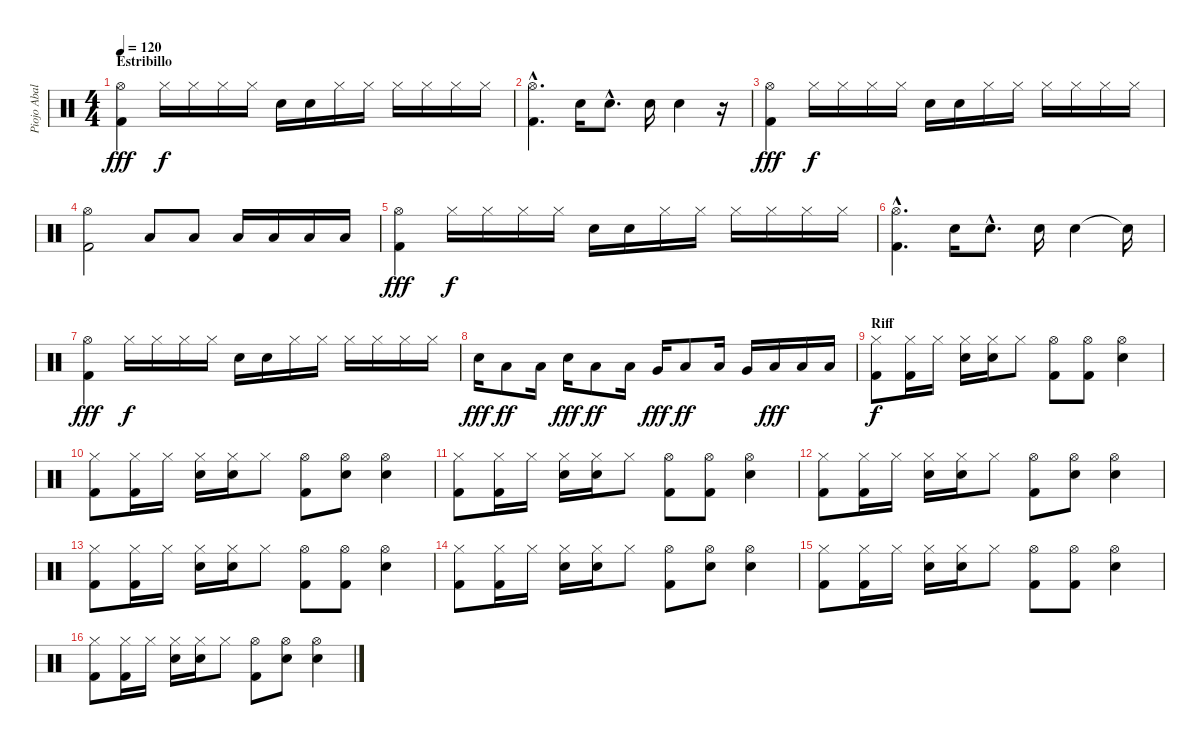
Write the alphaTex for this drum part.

\track ("Piojo Abalos" "Piojo Abal") {instrument percussion}
\staff {score}
\articulation defaults
\ts (4 4)
\section ("" "Estribillo")
\tempo 120
\clef neutral
\ks c
("Hi-Hat (open)" "Kick (hit) 2").4{dy fff} "Hi-Hat (closed)".16{dy f} "Hi-Hat (closed)".16 "Hi-Hat (closed)".16 "Hi-Hat (closed)".16 "Electric Snare (hit)".16 "Electric Snare (hit)".16 "Hi-Hat (closed)".16 "Hi-Hat (closed)".16 "Hi-Hat (closed)".16 "Hi-Hat (closed)".16 "Hi-Hat (closed)".16 "Hi-Hat (closed)".16 |
("Hi-Hat (open)"{hac} "Kick (hit) 2"{hac}).4{d} "Electric Snare (hit)".16 "Electric Snare (hit)"{hac}.8{d} "Electric Snare (hit)".16 "Electric Snare (hit)".4 r.16 |
("Hi-Hat (open)" "Kick (hit) 2").4{dy fff} "Hi-Hat (closed)".16{dy f} "Hi-Hat (closed)".16 "Hi-Hat (closed)".16 "Hi-Hat (closed)".16 "Electric Snare (hit)".16 "Electric Snare (hit)".16 "Hi-Hat (closed)".16 "Hi-Hat (closed)".16 "Hi-Hat (closed)".16 "Hi-Hat (closed)".16 "Hi-Hat (closed)".16 "Hi-Hat (closed)".16 |
("Hi-Hat (open)" "Kick (hit) 2").2 "Low Tom (hit)".8 "Low Tom (hit)".8 "Low Tom (hit)".16 "Low Tom (hit)".16 "Low Tom (hit)".16 "Low Tom (hit)".16 |
("Hi-Hat (open)" "Kick (hit) 2").4{dy fff} "Hi-Hat (closed)".16{dy f} "Hi-Hat (closed)".16 "Hi-Hat (closed)".16 "Hi-Hat (closed)".16 "Electric Snare (hit)".16 "Electric Snare (hit)".16 "Hi-Hat (closed)".16 "Hi-Hat (closed)".16 "Hi-Hat (closed)".16 "Hi-Hat (closed)".16 "Hi-Hat (closed)".16 "Hi-Hat (closed)".16 |
("Hi-Hat (open)"{hac} "Kick (hit) 2"{hac}).4{d} "Electric Snare (hit)".16 "Electric Snare (hit)"{hac}.8{d} "Electric Snare (hit)".16 "Electric Snare (hit)".4 "Snare (hit)"{t}.16 |
("Hi-Hat (open)" "Kick (hit) 2").4{dy fff} "Hi-Hat (closed)".16{dy f} "Hi-Hat (closed)".16 "Hi-Hat (closed)".16 "Hi-Hat (closed)".16 "Electric Snare (hit)".16 "Electric Snare (hit)".16 "Hi-Hat (closed)".16 "Hi-Hat (closed)".16 "Hi-Hat (closed)".16 "Hi-Hat (closed)".16 "Hi-Hat (closed)".16 "Hi-Hat (closed)".16 |
"Electric Snare (hit)".16{dy fff balance 0} "Low Tom (hit)".8{dy ff} "Low Tom (hit)".16 "Electric Snare (hit)".16{dy fff balance 16} "Low Tom (hit)".8{dy ff} "Low Tom (hit)".16{balance 0} "Very Low Tom (hit)".16{dy fff} "Low Tom (hit)".8{dy ff} "Low Tom (hit)".16{balance 16} "Very Low Tom (hit)".16 "Low Tom (hit)".16{dy fff} "Low Tom (hit)".16 "Low Tom (hit)".16 |
\section ("" "Riff")
("Hi-Hat (closed)" "Kick (hit) 2").8{dy f balance 10} ("Hi-Hat (closed)" "Kick (hit) 2").16 "Hi-Hat (closed)".16 ("Hi-Hat (closed)" "Electric Snare (hit)").16 ("Hi-Hat (closed)" "Electric Snare (hit)").16 "Hi-Hat (closed)".8 ("Hi-Hat (open)" "Kick (hit) 2").8 ("Hi-Hat (open)" "Kick (hit) 2").8 ("Hi-Hat (open)" "Electric Snare (hit)").4 |
("Hi-Hat (closed)" "Kick (hit) 2").8 ("Hi-Hat (closed)" "Kick (hit) 2").16 "Hi-Hat (closed)".16 ("Hi-Hat (closed)" "Electric Snare (hit)").16 ("Hi-Hat (closed)" "Electric Snare (hit)").16 "Hi-Hat (closed)".8 ("Hi-Hat (open)" "Kick (hit) 2").8 ("Hi-Hat (open)" "Electric Snare (hit)").8 ("Hi-Hat (open)" "Electric Snare (hit)").4 |
("Hi-Hat (closed)" "Kick (hit) 2").8 ("Hi-Hat (closed)" "Kick (hit) 2").16 "Hi-Hat (closed)".16 ("Hi-Hat (closed)" "Electric Snare (hit)").16 ("Hi-Hat (closed)" "Electric Snare (hit)").16 "Hi-Hat (closed)".8 ("Hi-Hat (open)" "Kick (hit) 2").8 ("Hi-Hat (open)" "Kick (hit) 2").8 ("Hi-Hat (open)" "Electric Snare (hit)").4 |
("Hi-Hat (closed)" "Kick (hit) 2").8 ("Hi-Hat (closed)" "Kick (hit) 2").16 "Hi-Hat (closed)".16 ("Hi-Hat (closed)" "Electric Snare (hit)").16 ("Hi-Hat (closed)" "Electric Snare (hit)").16 "Hi-Hat (closed)".8 ("Hi-Hat (open)" "Kick (hit) 2").8 ("Hi-Hat (open)" "Electric Snare (hit)").8 ("Hi-Hat (open)" "Electric Snare (hit)").4 |
("Hi-Hat (closed)" "Kick (hit) 2").8 ("Hi-Hat (closed)" "Kick (hit) 2").16 "Hi-Hat (closed)".16 ("Hi-Hat (closed)" "Electric Snare (hit)").16 ("Hi-Hat (closed)" "Electric Snare (hit)").16 "Hi-Hat (closed)".8 ("Hi-Hat (open)" "Kick (hit) 2").8 ("Hi-Hat (open)" "Kick (hit) 2").8 ("Hi-Hat (open)" "Electric Snare (hit)").4 |
("Hi-Hat (closed)" "Kick (hit) 2").8 ("Hi-Hat (closed)" "Kick (hit) 2").16 "Hi-Hat (closed)".16 ("Hi-Hat (closed)" "Electric Snare (hit)").16 ("Hi-Hat (closed)" "Electric Snare (hit)").16 "Hi-Hat (closed)".8 ("Hi-Hat (open)" "Kick (hit) 2").8 ("Hi-Hat (open)" "Electric Snare (hit)").8 ("Hi-Hat (open)" "Electric Snare (hit)").4 |
("Hi-Hat (closed)" "Kick (hit) 2").8 ("Hi-Hat (closed)" "Kick (hit) 2").16 "Hi-Hat (closed)".16 ("Hi-Hat (closed)" "Electric Snare (hit)").16 ("Hi-Hat (closed)" "Electric Snare (hit)").16 "Hi-Hat (closed)".8 ("Hi-Hat (open)" "Kick (hit) 2").8 ("Hi-Hat (open)" "Kick (hit) 2").8 ("Hi-Hat (open)" "Electric Snare (hit)").4 |
("Hi-Hat (closed)" "Kick (hit) 2").8 ("Hi-Hat (closed)" "Kick (hit) 2").16 "Hi-Hat (closed)".16 ("Hi-Hat (closed)" "Electric Snare (hit)").16 ("Hi-Hat (closed)" "Electric Snare (hit)").16 "Hi-Hat (closed)".8 ("Hi-Hat (open)" "Kick (hit) 2").8 ("Hi-Hat (open)" "Electric Snare (hit)").8 ("Hi-Hat (open)" "Electric Snare (hit)").4
